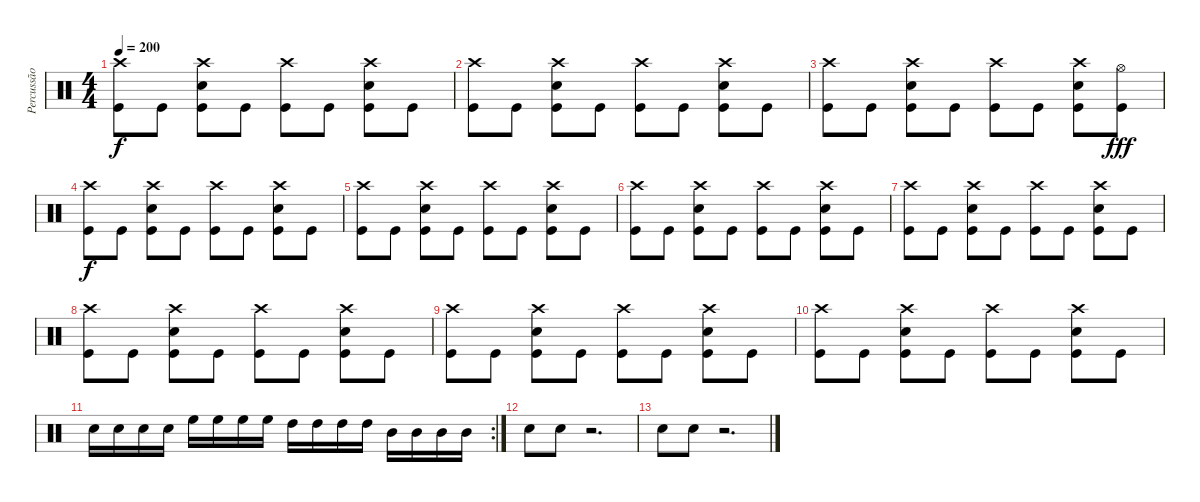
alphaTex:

\track ("Percussão" "Percussão") {instrument percussion}
\staff {score}
\articulation defaults
\ts (4 4)
\tempo 200
\clef neutral
\ks c
("Crash high (hit)" "Kick (hit)").8{dy f} "Kick (hit)".8 ("Crash high (hit)" "Electric Snare (hit)" "Kick (hit)").8 "Kick (hit)".8 ("Crash high (hit)" "Kick (hit)").8 "Kick (hit)".8 ("Crash high (hit)" "Electric Snare (hit)" "Kick (hit)").8 "Kick (hit)".8 |
("Crash high (hit)" "Kick (hit)").8 "Kick (hit)".8 ("Crash high (hit)" "Electric Snare (hit)" "Kick (hit)").8 "Kick (hit)".8 ("Crash high (hit)" "Kick (hit)").8 "Kick (hit)".8 ("Crash high (hit)" "Electric Snare (hit)" "Kick (hit)").8 "Kick (hit)".8 |
("Crash high (hit)" "Kick (hit)").8 "Kick (hit)".8 ("Crash high (hit)" "Electric Snare (hit)" "Kick (hit)").8 "Kick (hit)".8 ("Crash high (hit)" "Kick (hit)").8 "Kick (hit)".8 ("Crash high (hit)" "Electric Snare (hit)" "Kick (hit)").8 ("Hi-Hat (open)" "Kick (hit)").8{dy fff} |
("Crash high (hit)" "Kick (hit)").8{dy f} "Kick (hit)".8 ("Crash high (hit)" "Electric Snare (hit)" "Kick (hit)").8 "Kick (hit)".8 ("Crash high (hit)" "Kick (hit)").8 "Kick (hit)".8 ("Crash high (hit)" "Electric Snare (hit)" "Kick (hit)").8 "Kick (hit)".8 |
("Crash high (hit)" "Kick (hit)").8 "Kick (hit)".8 ("Crash high (hit)" "Electric Snare (hit)" "Kick (hit)").8 "Kick (hit)".8 ("Crash high (hit)" "Kick (hit)").8 "Kick (hit)".8 ("Crash high (hit)" "Electric Snare (hit)" "Kick (hit)").8 "Kick (hit)".8 |
("Crash high (hit)" "Kick (hit)").8 "Kick (hit)".8 ("Crash high (hit)" "Electric Snare (hit)" "Kick (hit)").8 "Kick (hit)".8 ("Crash high (hit)" "Kick (hit)").8 "Kick (hit)".8 ("Crash high (hit)" "Electric Snare (hit)" "Kick (hit)").8 "Kick (hit)".8 |
("Crash high (hit)" "Kick (hit)").8 "Kick (hit)".8 ("Crash high (hit)" "Electric Snare (hit)" "Kick (hit)").8 "Kick (hit)".8 ("Crash high (hit)" "Kick (hit)").8 "Kick (hit)".8 ("Crash high (hit)" "Electric Snare (hit)" "Kick (hit)").8 "Kick (hit)".8 |
("Crash high (hit)" "Kick (hit)").8 "Kick (hit)".8 ("Crash high (hit)" "Electric Snare (hit)" "Kick (hit)").8 "Kick (hit)".8 ("Crash high (hit)" "Kick (hit)").8 "Kick (hit)".8 ("Crash high (hit)" "Electric Snare (hit)" "Kick (hit)").8 "Kick (hit)".8 |
("Crash high (hit)" "Kick (hit)").8 "Kick (hit)".8 ("Crash high (hit)" "Electric Snare (hit)" "Kick (hit)").8 "Kick (hit)".8 ("Crash high (hit)" "Kick (hit)").8 "Kick (hit)".8 ("Crash high (hit)" "Electric Snare (hit)" "Kick (hit)").8 "Kick (hit)".8 |
("Crash high (hit)" "Kick (hit)").8 "Kick (hit)".8 ("Crash high (hit)" "Electric Snare (hit)" "Kick (hit)").8 "Kick (hit)".8 ("Crash high (hit)" "Kick (hit)").8 "Kick (hit)".8 ("Crash high (hit)" "Electric Snare (hit)" "Kick (hit)").8 "Kick (hit)".8 |
\rc 2 "Electric Snare (hit)".16 "Electric Snare (hit)".16 "Electric Snare (hit)".16 "Electric Snare (hit)".16 "High Floor Tom (hit)".16 "High Floor Tom (hit)".16 "High Floor Tom (hit)".16 "High Floor Tom (hit)".16 "High Tom (hit)".16 "High Tom (hit)".16 "High Tom (hit)".16 "High Tom (hit)".16 "Mid Tom (hit)".16 "Mid Tom (hit)".16 "Mid Tom (hit)".16 "Mid Tom (hit)".16
|
"Electric Snare (hit)".8 "Electric Snare (hit)".8 r.2{d} |
"Electric Snare (hit)".8 "Electric Snare (hit)".8 r.2{d}
